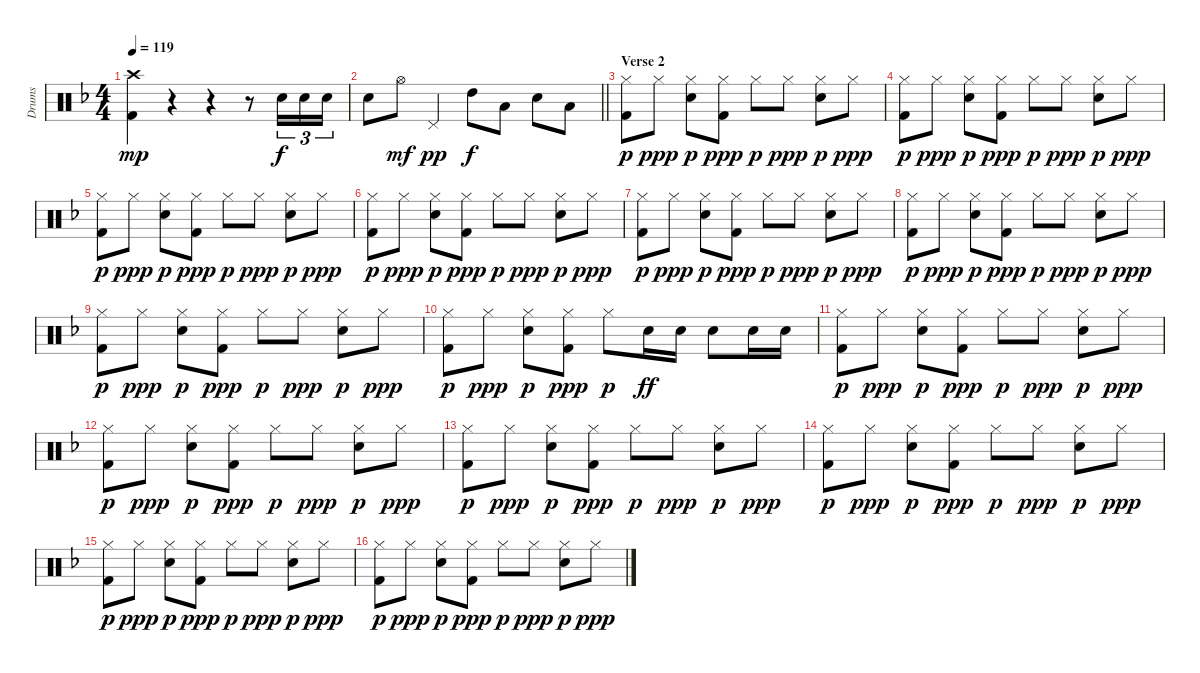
\track ("Drums" "Drums") {instrument percussion}
\staff {score}
\articulation defaults
\ts (4 4)
\tempo 119
\clef neutral
\ks f
("Kick (hit) 2" "Crash high (hit)").4{dy mp} r.4 r.4 r.8 "Electric Snare (hit)".16{tu (3 2) dy f} "Electric Snare (hit)".16{tu (3 2)} "Electric Snare (hit)".16{tu (3 2)} |
\barLineRight lightlight "Electric Snare (hit)".8 "Hi-Hat (open)".8{dy mf} "Pedal Hi-Hat (hit)".4{dy pp} "High Tom (hit)".8{dy f} "Low Tom (hit)".8 "Electric Snare (hit)".8 "Low Tom (hit)".8
|
\section ("" "Verse 2")
("Hi-Hat (closed)" "Kick (hit) 2").8{dy p} "Hi-Hat (closed)".8{dy ppp} ("Hi-Hat (closed)" "Electric Snare (hit)").8{dy p} ("Hi-Hat (closed)" "Kick (hit) 2").8{dy ppp} "Hi-Hat (closed)".8{dy p} "Hi-Hat (closed)".8{dy ppp} ("Hi-Hat (closed)" "Electric Snare (hit)").8{dy p} "Hi-Hat (closed)".8{dy ppp} |
("Hi-Hat (closed)" "Kick (hit) 2").8{dy p} "Hi-Hat (closed)".8{dy ppp} ("Hi-Hat (closed)" "Electric Snare (hit)").8{dy p} ("Hi-Hat (closed)" "Kick (hit) 2").8{dy ppp} "Hi-Hat (closed)".8{dy p} "Hi-Hat (closed)".8{dy ppp} ("Hi-Hat (closed)" "Electric Snare (hit)").8{dy p} "Hi-Hat (closed)".8{dy ppp} |
("Hi-Hat (closed)" "Kick (hit) 2").8{dy p} "Hi-Hat (closed)".8{dy ppp} ("Hi-Hat (closed)" "Electric Snare (hit)").8{dy p} ("Hi-Hat (closed)" "Kick (hit) 2").8{dy ppp} "Hi-Hat (closed)".8{dy p} "Hi-Hat (closed)".8{dy ppp} ("Hi-Hat (closed)" "Electric Snare (hit)").8{dy p} "Hi-Hat (closed)".8{dy ppp} |
("Hi-Hat (closed)" "Kick (hit) 2").8{dy p} "Hi-Hat (closed)".8{dy ppp} ("Hi-Hat (closed)" "Electric Snare (hit)").8{dy p} ("Hi-Hat (closed)" "Kick (hit) 2").8{dy ppp} "Hi-Hat (closed)".8{dy p} "Hi-Hat (closed)".8{dy ppp} ("Hi-Hat (closed)" "Electric Snare (hit)").8{dy p} "Hi-Hat (closed)".8{dy ppp} |
("Hi-Hat (closed)" "Kick (hit) 2").8{dy p} "Hi-Hat (closed)".8{dy ppp} ("Hi-Hat (closed)" "Electric Snare (hit)").8{dy p} ("Hi-Hat (closed)" "Kick (hit) 2").8{dy ppp} "Hi-Hat (closed)".8{dy p} "Hi-Hat (closed)".8{dy ppp} ("Hi-Hat (closed)" "Electric Snare (hit)").8{dy p} "Hi-Hat (closed)".8{dy ppp} |
("Hi-Hat (closed)" "Kick (hit) 2").8{dy p} "Hi-Hat (closed)".8{dy ppp} ("Hi-Hat (closed)" "Electric Snare (hit)").8{dy p} ("Hi-Hat (closed)" "Kick (hit) 2").8{dy ppp} "Hi-Hat (closed)".8{dy p} "Hi-Hat (closed)".8{dy ppp} ("Hi-Hat (closed)" "Electric Snare (hit)").8{dy p} "Hi-Hat (closed)".8{dy ppp} |
("Hi-Hat (closed)" "Kick (hit) 2").8{dy p} "Hi-Hat (closed)".8{dy ppp} ("Hi-Hat (closed)" "Electric Snare (hit)").8{dy p} ("Hi-Hat (closed)" "Kick (hit) 2").8{dy ppp} "Hi-Hat (closed)".8{dy p} "Hi-Hat (closed)".8{dy ppp} ("Hi-Hat (closed)" "Electric Snare (hit)").8{dy p} "Hi-Hat (closed)".8{dy ppp} |
("Hi-Hat (closed)" "Kick (hit) 2").8{dy p} "Hi-Hat (closed)".8{dy ppp} ("Hi-Hat (closed)" "Electric Snare (hit)").8{dy p} ("Hi-Hat (closed)" "Kick (hit) 2").8{dy ppp} "Hi-Hat (closed)".8{dy p} "Electric Snare (hit)".16{dy ff} "Electric Snare (hit)".16 "Electric Snare (hit)".8 "Electric Snare (hit)".16 "Electric Snare (hit)".16 |
("Hi-Hat (closed)" "Kick (hit) 2").8{dy p} "Hi-Hat (closed)".8{dy ppp} ("Hi-Hat (closed)" "Electric Snare (hit)").8{dy p} ("Hi-Hat (closed)" "Kick (hit) 2").8{dy ppp} "Hi-Hat (closed)".8{dy p} "Hi-Hat (closed)".8{dy ppp} ("Hi-Hat (closed)" "Electric Snare (hit)").8{dy p} "Hi-Hat (closed)".8{dy ppp} |
("Hi-Hat (closed)" "Kick (hit) 2").8{dy p} "Hi-Hat (closed)".8{dy ppp} ("Hi-Hat (closed)" "Electric Snare (hit)").8{dy p} ("Hi-Hat (closed)" "Kick (hit) 2").8{dy ppp} "Hi-Hat (closed)".8{dy p} "Hi-Hat (closed)".8{dy ppp} ("Hi-Hat (closed)" "Electric Snare (hit)").8{dy p} "Hi-Hat (closed)".8{dy ppp} |
("Hi-Hat (closed)" "Kick (hit) 2").8{dy p} "Hi-Hat (closed)".8{dy ppp} ("Hi-Hat (closed)" "Electric Snare (hit)").8{dy p} ("Hi-Hat (closed)" "Kick (hit) 2").8{dy ppp} "Hi-Hat (closed)".8{dy p} "Hi-Hat (closed)".8{dy ppp} ("Hi-Hat (closed)" "Electric Snare (hit)").8{dy p} "Hi-Hat (closed)".8{dy ppp} |
("Hi-Hat (closed)" "Kick (hit) 2").8{dy p} "Hi-Hat (closed)".8{dy ppp} ("Hi-Hat (closed)" "Electric Snare (hit)").8{dy p} ("Hi-Hat (closed)" "Kick (hit) 2").8{dy ppp} "Hi-Hat (closed)".8{dy p} "Hi-Hat (closed)".8{dy ppp} ("Hi-Hat (closed)" "Electric Snare (hit)").8{dy p} "Hi-Hat (closed)".8{dy ppp} |
("Hi-Hat (closed)" "Kick (hit) 2").8{dy p} "Hi-Hat (closed)".8{dy ppp} ("Hi-Hat (closed)" "Electric Snare (hit)").8{dy p} ("Hi-Hat (closed)" "Kick (hit) 2").8{dy ppp} "Hi-Hat (closed)".8{dy p} "Hi-Hat (closed)".8{dy ppp} ("Hi-Hat (closed)" "Electric Snare (hit)").8{dy p} "Hi-Hat (closed)".8{dy ppp} |
("Hi-Hat (closed)" "Kick (hit) 2").8{dy p} "Hi-Hat (closed)".8{dy ppp} ("Hi-Hat (closed)" "Electric Snare (hit)").8{dy p} ("Hi-Hat (closed)" "Kick (hit) 2").8{dy ppp} "Hi-Hat (closed)".8{dy p} "Hi-Hat (closed)".8{dy ppp} ("Hi-Hat (closed)" "Electric Snare (hit)").8{dy p} "Hi-Hat (closed)".8{dy ppp}
